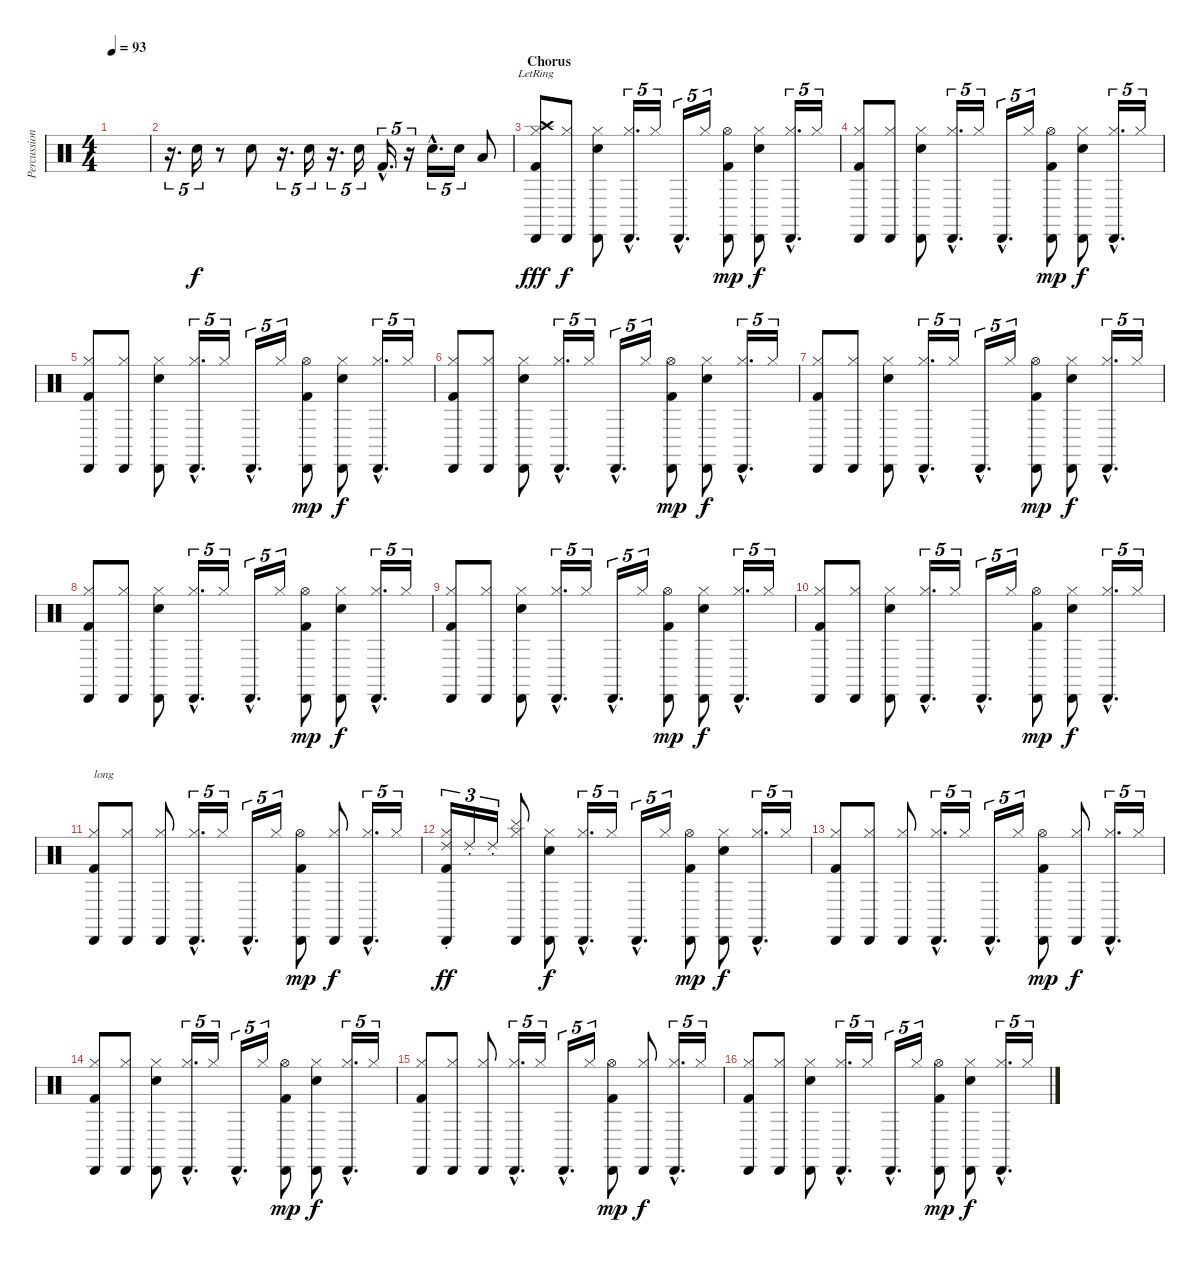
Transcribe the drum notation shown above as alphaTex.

\track ("Percussion" "Percussion") {instrument percussion}
\staff {score}
\articulation defaults
\ts (4 4)
\tempo 93
\clef neutral
\ks c
|
r.16{d tu (5 4) volume 13} "Snare (hit) 2".16{tu (5 4)} r.8 "Snare (hit) 2".8 r.16{d tu (5 4)} "Snare (hit) 2".16{tu (5 4)} r.16{d tu (5 4)} "Snare (hit) 2".16{tu (5 4)} "Kick (hit) 2"{hac}.16{d tu (5 4)} r.16{tu (5 4)} "Snare (hit) 2"{hac}.16{d tu (5 4)} "Snare (hit) 2".16{tu (5 4)} "Low Tom (hit)".8 |
\section ("" "Chorus")
("Cabasa (hit)" "Hi-Hat (closed)" "Crash high (hit)"{lr} "Kick (hit) 2").8{dy fff} ("Cabasa (hit)" "Hi-Hat (closed)").8{dy f} ("Cabasa (hit)" "Hi-Hat (closed)" "Snare (hit) 2").8 ("Cabasa (hit)"{hac} "Hi-Hat (closed)"{hac}).16{d tu (5 4)} "Hi-Hat (closed)".16{tu (5 4)} "Cabasa (hit)"{hac}.16{d tu (5 4)} "Hi-Hat (closed)".16{tu (5 4)} ("Cabasa (hit)" "Hi-Hat (open)" "Kick (hit) 2").8{dy mp} ("Cabasa (hit)" "Hi-Hat (closed)" "Snare (hit) 2").8{dy f} ("Cabasa (hit)"{hac} "Hi-Hat (closed)"{hac}).16{d tu (5 4)} "Hi-Hat (closed)".16{tu (5 4)} |
("Cabasa (hit)" "Hi-Hat (closed)" "Kick (hit) 2").8 ("Cabasa (hit)" "Hi-Hat (closed)").8 ("Cabasa (hit)" "Hi-Hat (closed)" "Snare (hit) 2").8 ("Cabasa (hit)"{hac} "Hi-Hat (closed)"{hac}).16{d tu (5 4)} "Hi-Hat (closed)".16{tu (5 4)} "Cabasa (hit)"{hac}.16{d tu (5 4)} "Hi-Hat (closed)".16{tu (5 4)} ("Cabasa (hit)" "Hi-Hat (open)" "Kick (hit) 2").8{dy mp} ("Cabasa (hit)" "Hi-Hat (closed)" "Snare (hit) 2").8{dy f} ("Cabasa (hit)"{hac} "Hi-Hat (closed)"{hac}).16{d tu (5 4)} "Hi-Hat (closed)".16{tu (5 4)} |
("Cabasa (hit)" "Hi-Hat (closed)" "Kick (hit) 2").8 ("Cabasa (hit)" "Hi-Hat (closed)").8 ("Cabasa (hit)" "Hi-Hat (closed)" "Snare (hit) 2").8 ("Cabasa (hit)"{hac} "Hi-Hat (closed)"{hac}).16{d tu (5 4)} "Hi-Hat (closed)".16{tu (5 4)} "Cabasa (hit)"{hac}.16{d tu (5 4)} "Hi-Hat (closed)".16{tu (5 4)} ("Cabasa (hit)" "Hi-Hat (open)" "Kick (hit) 2").8{dy mp} ("Cabasa (hit)" "Hi-Hat (closed)" "Snare (hit) 2").8{dy f} ("Cabasa (hit)"{hac} "Hi-Hat (closed)"{hac}).16{d tu (5 4)} "Hi-Hat (closed)".16{tu (5 4)} |
("Cabasa (hit)" "Hi-Hat (closed)" "Kick (hit) 2").8 ("Cabasa (hit)" "Hi-Hat (closed)").8 ("Cabasa (hit)" "Hi-Hat (closed)" "Snare (hit) 2").8 ("Cabasa (hit)"{hac} "Hi-Hat (closed)"{hac}).16{d tu (5 4)} "Hi-Hat (closed)".16{tu (5 4)} "Cabasa (hit)"{hac}.16{d tu (5 4)} "Hi-Hat (closed)".16{tu (5 4)} ("Cabasa (hit)" "Hi-Hat (open)" "Kick (hit) 2").8{dy mp} ("Cabasa (hit)" "Hi-Hat (closed)" "Snare (hit) 2").8{dy f} ("Cabasa (hit)"{hac} "Hi-Hat (closed)"{hac}).16{d tu (5 4)} "Hi-Hat (closed)".16{tu (5 4)} |
("Cabasa (hit)" "Hi-Hat (closed)" "Kick (hit) 2").8 ("Cabasa (hit)" "Hi-Hat (closed)").8 ("Cabasa (hit)" "Hi-Hat (closed)" "Snare (hit) 2").8 ("Cabasa (hit)"{hac} "Hi-Hat (closed)"{hac}).16{d tu (5 4)} "Hi-Hat (closed)".16{tu (5 4)} "Cabasa (hit)"{hac}.16{d tu (5 4)} "Hi-Hat (closed)".16{tu (5 4)} ("Cabasa (hit)" "Hi-Hat (open)" "Kick (hit) 2").8{dy mp} ("Cabasa (hit)" "Hi-Hat (closed)" "Snare (hit) 2").8{dy f} ("Cabasa (hit)"{hac} "Hi-Hat (closed)"{hac}).16{d tu (5 4)} "Hi-Hat (closed)".16{tu (5 4)} |
("Cabasa (hit)" "Hi-Hat (closed)" "Kick (hit) 2").8 ("Cabasa (hit)" "Hi-Hat (closed)").8 ("Cabasa (hit)" "Hi-Hat (closed)" "Snare (hit) 2").8 ("Cabasa (hit)"{hac} "Hi-Hat (closed)"{hac}).16{d tu (5 4)} "Hi-Hat (closed)".16{tu (5 4)} "Cabasa (hit)"{hac}.16{d tu (5 4)} "Hi-Hat (closed)".16{tu (5 4)} ("Cabasa (hit)" "Hi-Hat (open)" "Kick (hit) 2").8{dy mp} ("Cabasa (hit)" "Hi-Hat (closed)" "Snare (hit) 2").8{dy f} ("Cabasa (hit)"{hac} "Hi-Hat (closed)"{hac}).16{d tu (5 4)} "Hi-Hat (closed)".16{tu (5 4)} |
("Cabasa (hit)" "Hi-Hat (closed)" "Kick (hit) 2").8 ("Cabasa (hit)" "Hi-Hat (closed)").8 ("Cabasa (hit)" "Hi-Hat (closed)" "Snare (hit) 2").8 ("Cabasa (hit)"{hac} "Hi-Hat (closed)"{hac}).16{d tu (5 4)} "Hi-Hat (closed)".16{tu (5 4)} "Cabasa (hit)"{hac}.16{d tu (5 4)} "Hi-Hat (closed)".16{tu (5 4)} ("Cabasa (hit)" "Hi-Hat (open)" "Kick (hit) 2").8{dy mp} ("Cabasa (hit)" "Hi-Hat (closed)" "Snare (hit) 2").8{dy f} ("Cabasa (hit)"{hac} "Hi-Hat (closed)"{hac}).16{d tu (5 4)} "Hi-Hat (closed)".16{tu (5 4)} |
("Cabasa (hit)" "Hi-Hat (closed)" "Kick (hit) 2").8 ("Cabasa (hit)" "Hi-Hat (closed)").8 ("Cabasa (hit)" "Hi-Hat (closed)" "Snare (hit) 2").8 ("Cabasa (hit)"{hac} "Hi-Hat (closed)"{hac}).16{d tu (5 4)} "Hi-Hat (closed)".16{tu (5 4)} "Cabasa (hit)"{hac}.16{d tu (5 4)} "Hi-Hat (closed)".16{tu (5 4)} ("Cabasa (hit)" "Hi-Hat (open)" "Kick (hit) 2").8{dy mp} ("Cabasa (hit)" "Hi-Hat (closed)" "Snare (hit) 2").8{dy f} ("Cabasa (hit)"{hac} "Hi-Hat (closed)"{hac}).16{d tu (5 4)} "Hi-Hat (closed)".16{tu (5 4)} |
("Cabasa (hit)" "Hi-Hat (closed)" "Kick (hit) 2").8{txt "long"} ("Cabasa (hit)" "Hi-Hat (closed)").8 ("Cabasa (hit)" "Hi-Hat (closed)").8 ("Cabasa (hit)"{hac} "Hi-Hat (closed)"{hac}).16{d tu (5 4)} "Hi-Hat (closed)".16{tu (5 4)} "Cabasa (hit)"{hac}.16{d tu (5 4)} "Hi-Hat (closed)".16{tu (5 4)} ("Cabasa (hit)" "Hi-Hat (open)" "Kick (hit) 2").8{dy mp} ("Cabasa (hit)" "Hi-Hat (closed)").8{dy f} ("Cabasa (hit)"{hac} "Hi-Hat (closed)"{hac}).16{d tu (5 4)} "Hi-Hat (closed)".16{tu (5 4)} |
("Cabasa (hit)" "Hi-Hat (closed)" "Ride (choke) 2" "Kick (hit) 2").16{tu (3 2) dy ff} "Ride (choke) 2".16{tu (3 2)} "Ride (choke) 2".16{tu (3 2)} ("Cabasa (hit)" "Hi-Hat (closed)" "Cymbal (hit)").8 ("Cabasa (hit)" "Hi-Hat (closed)" "Snare (hit) 2").8{dy f} ("Cabasa (hit)"{hac} "Hi-Hat (closed)"{hac}).16{d tu (5 4)} "Hi-Hat (closed)".16{tu (5 4)} "Cabasa (hit)"{hac}.16{d tu (5 4)} "Hi-Hat (closed)".16{tu (5 4)} ("Cabasa (hit)" "Hi-Hat (open)" "Kick (hit) 2").8{dy mp} ("Cabasa (hit)" "Hi-Hat (closed)" "Snare (hit) 2").8{dy f} ("Cabasa (hit)"{hac} "Hi-Hat (closed)"{hac}).16{d tu (5 4)} "Hi-Hat (closed)".16{tu (5 4)} |
("Cabasa (hit)" "Hi-Hat (closed)" "Kick (hit) 2").8 ("Cabasa (hit)" "Hi-Hat (closed)").8 ("Cabasa (hit)" "Hi-Hat (closed)").8 ("Cabasa (hit)"{hac} "Hi-Hat (closed)"{hac}).16{d tu (5 4)} "Hi-Hat (closed)".16{tu (5 4)} "Cabasa (hit)"{hac}.16{d tu (5 4)} "Hi-Hat (closed)".16{tu (5 4)} ("Cabasa (hit)" "Hi-Hat (open)" "Kick (hit) 2").8{dy mp} ("Cabasa (hit)" "Hi-Hat (closed)").8{dy f} ("Cabasa (hit)"{hac} "Hi-Hat (closed)"{hac}).16{d tu (5 4)} "Hi-Hat (closed)".16{tu (5 4)} |
("Cabasa (hit)" "Hi-Hat (closed)" "Kick (hit) 2").8 ("Cabasa (hit)" "Hi-Hat (closed)").8 ("Cabasa (hit)" "Hi-Hat (closed)" "Snare (hit) 2").8 ("Cabasa (hit)"{hac} "Hi-Hat (closed)"{hac}).16{d tu (5 4)} "Hi-Hat (closed)".16{tu (5 4)} "Cabasa (hit)"{hac}.16{d tu (5 4)} "Hi-Hat (closed)".16{tu (5 4)} ("Cabasa (hit)" "Hi-Hat (open)" "Kick (hit) 2").8{dy mp} ("Cabasa (hit)" "Hi-Hat (closed)" "Snare (hit) 2").8{dy f} ("Cabasa (hit)"{hac} "Hi-Hat (closed)"{hac}).16{d tu (5 4)} "Hi-Hat (closed)".16{tu (5 4)} |
("Cabasa (hit)" "Hi-Hat (closed)" "Kick (hit) 2").8 ("Cabasa (hit)" "Hi-Hat (closed)").8 ("Cabasa (hit)" "Hi-Hat (closed)").8 ("Cabasa (hit)"{hac} "Hi-Hat (closed)"{hac}).16{d tu (5 4)} "Hi-Hat (closed)".16{tu (5 4)} "Cabasa (hit)"{hac}.16{d tu (5 4)} "Hi-Hat (closed)".16{tu (5 4)} ("Cabasa (hit)" "Hi-Hat (open)" "Kick (hit) 2").8{dy mp} ("Cabasa (hit)" "Hi-Hat (closed)").8{dy f} ("Cabasa (hit)"{hac} "Hi-Hat (closed)"{hac}).16{d tu (5 4)} "Hi-Hat (closed)".16{tu (5 4)} |
("Cabasa (hit)" "Hi-Hat (closed)" "Kick (hit) 2").8 ("Cabasa (hit)" "Hi-Hat (closed)").8 ("Cabasa (hit)" "Hi-Hat (closed)" "Snare (hit) 2").8 ("Cabasa (hit)"{hac} "Hi-Hat (closed)"{hac}).16{d tu (5 4)} "Hi-Hat (closed)".16{tu (5 4)} "Cabasa (hit)"{hac}.16{d tu (5 4)} "Hi-Hat (closed)".16{tu (5 4)} ("Cabasa (hit)" "Hi-Hat (open)" "Kick (hit) 2").8{dy mp} ("Cabasa (hit)" "Hi-Hat (closed)" "Snare (hit) 2").8{dy f} ("Cabasa (hit)"{hac} "Hi-Hat (closed)"{hac}).16{d tu (5 4)} "Hi-Hat (closed)".16{tu (5 4)}
